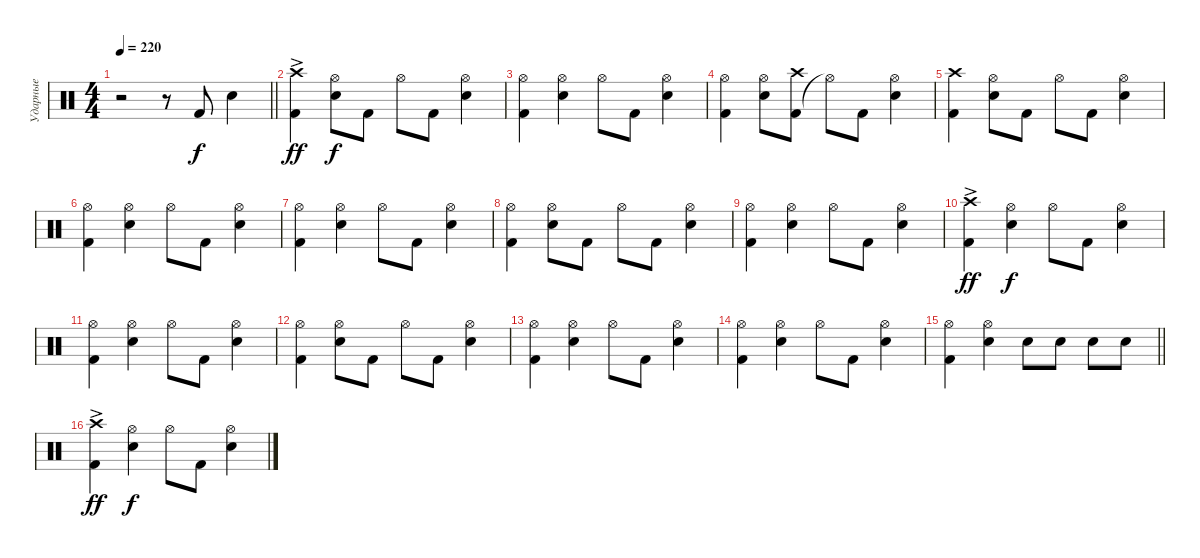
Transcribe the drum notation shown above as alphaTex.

\track ("Ударные" "Ударные") {instrument percussion}
\staff {score}
\articulation defaults
\ts (4 4)
\tempo 220
\clef neutral
\barLineRight lightlight
\ks c
r.2{dy f} r.8 "Kick (hit) 2".8 "Snare (hit) 2".4 |
("Kick (hit) 2" "Crash high (hit)"{ac}).4{dy ff} ("Snare (hit) 2" "Hi-Hat (open)").8{dy f} "Kick (hit) 2".8 "Hi-Hat (open)".8 "Kick (hit) 2".8 ("Snare (hit) 2" "Hi-Hat (open)").4 |
("Kick (hit) 2" "Hi-Hat (open)").4 ("Snare (hit) 2" "Hi-Hat (open)").4 "Hi-Hat (open)".8 "Kick (hit) 2".8 ("Snare (hit) 2" "Hi-Hat (open)").4 |
("Kick (hit) 2" "Hi-Hat (open)").4 ("Snare (hit) 2" "Hi-Hat (open)").8 ("Kick (hit) 2" "Crash high (hit)").8 "Hi-Hat (open)"{t}.8 "Kick (hit) 2".8 ("Snare (hit) 2" "Hi-Hat (open)").4 |
("Kick (hit) 2" "Crash high (hit)").4 ("Snare (hit) 2" "Hi-Hat (open)").8 "Kick (hit) 2".8 "Hi-Hat (open)".8 "Kick (hit) 2".8 ("Snare (hit) 2" "Hi-Hat (open)").4 |
("Kick (hit) 2" "Hi-Hat (open)").4 ("Snare (hit) 2" "Hi-Hat (open)").4 "Hi-Hat (open)".8 "Kick (hit) 2".8 ("Snare (hit) 2" "Hi-Hat (open)").4 |
("Kick (hit) 2" "Hi-Hat (open)").4 ("Snare (hit) 2" "Hi-Hat (open)").4 "Hi-Hat (open)".8 "Kick (hit) 2".8 ("Snare (hit) 2" "Hi-Hat (open)").4 |
("Kick (hit) 2" "Hi-Hat (open)").4 ("Snare (hit) 2" "Hi-Hat (open)").8 "Kick (hit) 2".8 "Hi-Hat (open)".8 "Kick (hit) 2".8 ("Snare (hit) 2" "Hi-Hat (open)").4 |
("Kick (hit) 2" "Hi-Hat (open)").4 ("Snare (hit) 2" "Hi-Hat (open)").4 "Hi-Hat (open)".8 "Kick (hit) 2".8 ("Snare (hit) 2" "Hi-Hat (open)").4 |
("Kick (hit) 2" "Crash high (hit)"{ac}).4{dy ff} ("Snare (hit) 2" "Hi-Hat (open)").4{dy f} "Hi-Hat (open)".8 "Kick (hit) 2".8 ("Snare (hit) 2" "Hi-Hat (open)").4 |
("Kick (hit) 2" "Hi-Hat (open)").4 ("Snare (hit) 2" "Hi-Hat (open)").4 "Hi-Hat (open)".8 "Kick (hit) 2".8 ("Snare (hit) 2" "Hi-Hat (open)").4 |
("Kick (hit) 2" "Hi-Hat (open)").4 ("Snare (hit) 2" "Hi-Hat (open)").8 "Kick (hit) 2".8 "Hi-Hat (open)".8 "Kick (hit) 2".8 ("Snare (hit) 2" "Hi-Hat (open)").4 |
("Kick (hit) 2" "Hi-Hat (open)").4 ("Snare (hit) 2" "Hi-Hat (open)").4 "Hi-Hat (open)".8 "Kick (hit) 2".8 ("Snare (hit) 2" "Hi-Hat (open)").4 |
("Kick (hit) 2" "Hi-Hat (open)").4 ("Snare (hit) 2" "Hi-Hat (open)").4 "Hi-Hat (open)".8 "Kick (hit) 2".8 ("Snare (hit) 2" "Hi-Hat (open)").4 |
\barLineRight lightlight
("Kick (hit) 2" "Hi-Hat (open)").4 ("Snare (hit) 2" "Hi-Hat (open)").4 "Snare (hit) 2".8 "Snare (hit) 2".8 "Snare (hit) 2".8 "Snare (hit) 2".8 |
("Kick (hit) 2" "Crash high (hit)"{ac}).4{dy ff} ("Snare (hit) 2" "Hi-Hat (open)").4{dy f} "Hi-Hat (open)".8 "Kick (hit) 2".8 ("Snare (hit) 2" "Hi-Hat (open)").4
